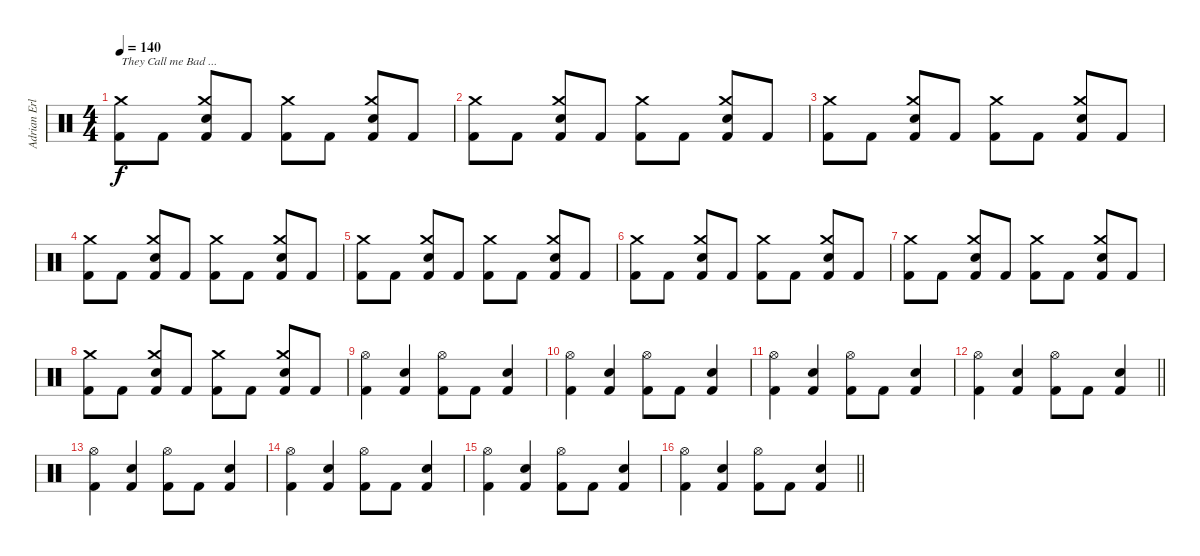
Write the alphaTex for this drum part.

\track ("Adrian Erlandsson" "Adrian Erl") {instrument percussion}
\staff {score}
\articulation defaults
\ts (4 4)
\tempo 140
\clef neutral
\ks c
("Kick (hit) 2" "Crash medium (hit)").8{txt "They Call me Bad ..." dy f} "Kick (hit) 2".8 ("Kick (hit) 2" "Crash medium (hit)" "Electric Snare (hit)").8 "Kick (hit) 2".8 ("Kick (hit) 2" "Crash medium (hit)").8 "Kick (hit) 2".8 ("Kick (hit) 2" "Crash medium (hit)" "Electric Snare (hit)").8 "Kick (hit) 2".8 |
("Kick (hit) 2" "Crash medium (hit)").8 "Kick (hit) 2".8 ("Kick (hit) 2" "Crash medium (hit)" "Electric Snare (hit)").8 "Kick (hit) 2".8 ("Kick (hit) 2" "Crash medium (hit)").8 "Kick (hit) 2".8 ("Kick (hit) 2" "Crash medium (hit)" "Electric Snare (hit)").8 "Kick (hit) 2".8 |
("Kick (hit) 2" "Crash medium (hit)").8 "Kick (hit) 2".8 ("Kick (hit) 2" "Crash medium (hit)" "Electric Snare (hit)").8 "Kick (hit) 2".8 ("Kick (hit) 2" "Crash medium (hit)").8 "Kick (hit) 2".8 ("Kick (hit) 2" "Crash medium (hit)" "Electric Snare (hit)").8 "Kick (hit) 2".8 |
("Kick (hit) 2" "Crash medium (hit)").8 "Kick (hit) 2".8 ("Kick (hit) 2" "Crash medium (hit)" "Electric Snare (hit)").8 "Kick (hit) 2".8 ("Kick (hit) 2" "Crash medium (hit)").8 "Kick (hit) 2".8 ("Kick (hit) 2" "Crash medium (hit)" "Electric Snare (hit)").8 "Kick (hit) 2".8 |
("Kick (hit) 2" "Crash medium (hit)").8 "Kick (hit) 2".8 ("Kick (hit) 2" "Crash medium (hit)" "Electric Snare (hit)").8 "Kick (hit) 2".8 ("Kick (hit) 2" "Crash medium (hit)").8 "Kick (hit) 2".8 ("Kick (hit) 2" "Crash medium (hit)" "Electric Snare (hit)").8 "Kick (hit) 2".8 |
("Kick (hit) 2" "Crash medium (hit)").8 "Kick (hit) 2".8 ("Kick (hit) 2" "Crash medium (hit)" "Electric Snare (hit)").8 "Kick (hit) 2".8 ("Kick (hit) 2" "Crash medium (hit)").8 "Kick (hit) 2".8 ("Kick (hit) 2" "Crash medium (hit)" "Electric Snare (hit)").8 "Kick (hit) 2".8 |
("Kick (hit) 2" "Crash medium (hit)").8 "Kick (hit) 2".8 ("Kick (hit) 2" "Crash medium (hit)" "Electric Snare (hit)").8 "Kick (hit) 2".8 ("Kick (hit) 2" "Crash medium (hit)").8 "Kick (hit) 2".8 ("Kick (hit) 2" "Crash medium (hit)" "Electric Snare (hit)").8 "Kick (hit) 2".8 |
("Kick (hit) 2" "Crash medium (hit)").8 "Kick (hit) 2".8 ("Kick (hit) 2" "Crash medium (hit)" "Electric Snare (hit)").8 "Kick (hit) 2".8 ("Kick (hit) 2" "Crash medium (hit)").8 "Kick (hit) 2".8 ("Kick (hit) 2" "Crash medium (hit)" "Electric Snare (hit)").8 "Kick (hit) 2".8 |
("Kick (hit) 2" "Hi-Hat (open)").4 ("Kick (hit) 2" "Electric Snare (hit)").4 ("Kick (hit) 2" "Hi-Hat (open)").8 "Kick (hit) 2".8 ("Kick (hit) 2" "Electric Snare (hit)").4 |
("Kick (hit) 2" "Hi-Hat (open)").4 ("Kick (hit) 2" "Electric Snare (hit)").4 ("Kick (hit) 2" "Hi-Hat (open)").8 "Kick (hit) 2".8 ("Kick (hit) 2" "Electric Snare (hit)").4 |
("Kick (hit) 2" "Hi-Hat (open)").4 ("Kick (hit) 2" "Electric Snare (hit)").4 ("Kick (hit) 2" "Hi-Hat (open)").8 "Kick (hit) 2".8 ("Kick (hit) 2" "Electric Snare (hit)").4 |
\barLineRight lightlight
("Kick (hit) 2" "Hi-Hat (open)").4 ("Kick (hit) 2" "Electric Snare (hit)").4 ("Kick (hit) 2" "Hi-Hat (open)").8 "Kick (hit) 2".8 ("Kick (hit) 2" "Electric Snare (hit)").4 |
("Kick (hit) 2" "Hi-Hat (open)").4 ("Kick (hit) 2" "Electric Snare (hit)").4 ("Kick (hit) 2" "Hi-Hat (open)").8 "Kick (hit) 2".8 ("Kick (hit) 2" "Electric Snare (hit)").4 |
("Kick (hit) 2" "Hi-Hat (open)").4 ("Kick (hit) 2" "Electric Snare (hit)").4 ("Kick (hit) 2" "Hi-Hat (open)").8 "Kick (hit) 2".8 ("Kick (hit) 2" "Electric Snare (hit)").4 |
("Kick (hit) 2" "Hi-Hat (open)").4 ("Kick (hit) 2" "Electric Snare (hit)").4 ("Kick (hit) 2" "Hi-Hat (open)").8 "Kick (hit) 2".8 ("Kick (hit) 2" "Electric Snare (hit)").4 |
\barLineRight lightlight
("Kick (hit) 2" "Hi-Hat (open)").4 ("Kick (hit) 2" "Electric Snare (hit)").4 ("Kick (hit) 2" "Hi-Hat (open)").8 "Kick (hit) 2".8 ("Kick (hit) 2" "Electric Snare (hit)").4
